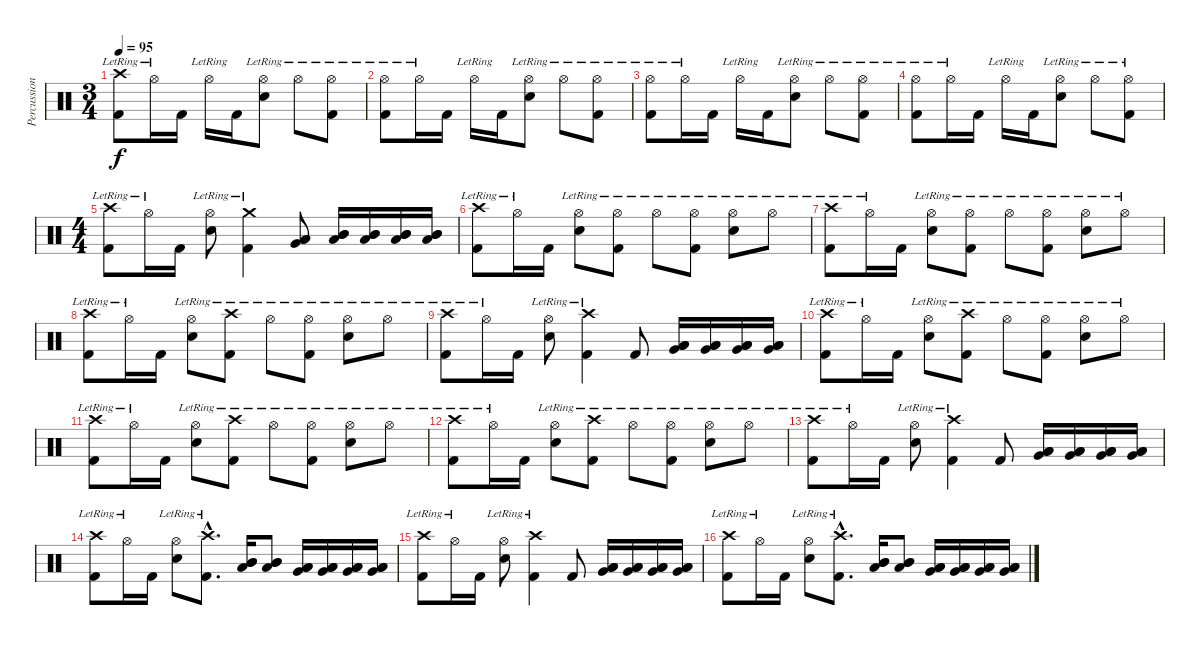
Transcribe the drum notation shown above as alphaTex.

\track ("Percussion I" "Percussion") {instrument percussion}
\staff {score}
\articulation defaults
\ts (3 4)
\tempo 95
\clef neutral
\ks c
("Crash high (hit)"{lr} "Kick (hit) 2").8{dy f} "Hi-Hat (open)"{lr}.16 "Kick (hit) 2".16 "Hi-Hat (open)"{lr}.16 "Kick (hit) 2".16 ("Hi-Hat (open)"{lr} "Electric Snare (hit)").8 "Hi-Hat (open)"{lr}.8 ("Hi-Hat (open)"{lr} "Kick (hit) 2").8 |
("Hi-Hat (open)"{lr} "Kick (hit) 2").8 "Hi-Hat (open)"{lr}.16 "Kick (hit) 2".16 "Hi-Hat (open)"{lr}.16 "Kick (hit) 2".16 ("Hi-Hat (open)"{lr} "Electric Snare (hit)").8 "Hi-Hat (open)"{lr}.8 ("Hi-Hat (open)"{lr} "Kick (hit) 2").8 |
("Hi-Hat (open)"{lr} "Kick (hit) 2").8 "Hi-Hat (open)"{lr}.16 "Kick (hit) 2".16 "Hi-Hat (open)"{lr}.16 "Kick (hit) 2".16 ("Hi-Hat (open)"{lr} "Electric Snare (hit)").8 "Hi-Hat (open)"{lr}.8 ("Hi-Hat (open)"{lr} "Kick (hit) 2").8 |
("Hi-Hat (open)"{lr} "Kick (hit) 2").8 "Hi-Hat (open)"{lr}.16 "Kick (hit) 2".16 "Hi-Hat (open)"{lr}.16 "Kick (hit) 2".16 ("Hi-Hat (open)"{lr} "Electric Snare (hit)").8 "Hi-Hat (open)"{lr}.8 ("Hi-Hat (open)"{lr} "Kick (hit) 2").8 |
\ts (4 4)
("Crash high (hit)"{lr} "Kick (hit) 2").8 "Hi-Hat (open)"{lr}.16 "Kick (hit) 2".16 ("Hi-Hat (open)"{lr} "Electric Snare (hit)").8 ("Crash medium (hit)"{lr} "Kick (hit) 2").4 ("Low Tom (hit)" "Low Tom (hit)" "Very Low Tom (hit)").8 ("Mid Tom (hit)" "Mid Tom (hit)" "Low Tom (hit)").16 ("Mid Tom (hit)" "Mid Tom (hit)" "Low Tom (hit)").16 ("Mid Tom (hit)" "Mid Tom (hit)" "Low Tom (hit)").16 ("Mid Tom (hit)" "Mid Tom (hit)" "Low Tom (hit)").16 |
("Crash high (hit)"{lr} "Kick (hit) 2").8 "Hi-Hat (open)"{lr}.16 "Kick (hit) 2".16 ("Hi-Hat (open)"{lr} "Electric Snare (hit)").8 ("Hi-Hat (open)"{lr} "Kick (hit) 2").8 "Hi-Hat (open)"{lr}.8 ("Hi-Hat (open)"{lr} "Kick (hit) 2").8 ("Hi-Hat (open)"{lr} "Electric Snare (hit)").8 "Hi-Hat (open)"{lr}.8 |
("Crash high (hit)"{lr} "Kick (hit) 2").8 "Hi-Hat (open)"{lr}.16 "Kick (hit) 2".16 ("Hi-Hat (open)"{lr} "Electric Snare (hit)").8 ("Hi-Hat (open)"{lr} "Kick (hit) 2").8 "Hi-Hat (open)"{lr}.8 ("Hi-Hat (open)"{lr} "Kick (hit) 2").8 ("Hi-Hat (open)"{lr} "Electric Snare (hit)").8 "Hi-Hat (open)"{lr}.8 |
("Crash high (hit)"{lr} "Kick (hit) 2").8 "Hi-Hat (open)"{lr}.16 "Kick (hit) 2".16 ("Hi-Hat (open)"{lr} "Electric Snare (hit)").8 ("Crash high (hit)"{lr} "Kick (hit) 2").8 "Hi-Hat (open)"{lr}.8 ("Hi-Hat (open)"{lr} "Kick (hit) 2").8 ("Hi-Hat (open)"{lr} "Electric Snare (hit)").8 "Hi-Hat (open)"{lr}.8 |
("Crash high (hit)"{lr} "Kick (hit) 2").8 "Hi-Hat (open)"{lr}.16 "Kick (hit) 2".16 ("Hi-Hat (open)"{lr} "Electric Snare (hit)").8 ("Crash high (hit)"{lr} "Kick (hit) 2").4 "Kick (hit) 2".8 ("Low Tom (hit)" "Low Tom (hit)" "Very Low Tom (hit)").16 ("Low Tom (hit)" "Low Tom (hit)" "Very Low Tom (hit)").16 ("Low Tom (hit)" "Low Tom (hit)" "Very Low Tom (hit)").16 ("Low Tom (hit)" "Low Tom (hit)" "Very Low Tom (hit)").16 |
("Crash high (hit)"{lr} "Kick (hit) 2").8 "Hi-Hat (open)"{lr}.16 "Kick (hit) 2".16 ("Hi-Hat (open)"{lr} "Electric Snare (hit)").8 ("Crash high (hit)"{lr} "Kick (hit) 2").8 "Hi-Hat (open)"{lr}.8 ("Hi-Hat (open)"{lr} "Kick (hit) 2").8 ("Hi-Hat (open)"{lr} "Electric Snare (hit)").8 "Hi-Hat (open)"{lr}.8 |
("Crash high (hit)"{lr} "Kick (hit) 2").8 "Hi-Hat (open)"{lr}.16 "Kick (hit) 2".16 ("Hi-Hat (open)"{lr} "Electric Snare (hit)").8 ("Crash high (hit)"{lr} "Kick (hit) 2").8 "Hi-Hat (open)"{lr}.8 ("Hi-Hat (open)"{lr} "Kick (hit) 2").8 ("Hi-Hat (open)"{lr} "Electric Snare (hit)").8 "Hi-Hat (open)"{lr}.8 |
("Crash high (hit)"{lr} "Kick (hit) 2").8 "Hi-Hat (open)"{lr}.16 "Kick (hit) 2".16 ("Hi-Hat (open)"{lr} "Electric Snare (hit)").8 ("Crash high (hit)"{lr} "Kick (hit) 2").8 "Hi-Hat (open)"{lr}.8 ("Hi-Hat (open)"{lr} "Kick (hit) 2").8 ("Hi-Hat (open)"{lr} "Electric Snare (hit)").8 "Hi-Hat (open)"{lr}.8 |
("Crash high (hit)"{lr} "Kick (hit) 2").8 "Hi-Hat (open)"{lr}.16 "Kick (hit) 2".16 ("Hi-Hat (open)"{lr} "Electric Snare (hit)").8 ("Crash high (hit)"{lr} "Kick (hit) 2").4 "Kick (hit) 2".8 ("Low Tom (hit)" "Low Tom (hit)" "Very Low Tom (hit)").16 ("Low Tom (hit)" "Low Tom (hit)" "Very Low Tom (hit)").16 ("Low Tom (hit)" "Low Tom (hit)" "Very Low Tom (hit)").16 ("Low Tom (hit)" "Low Tom (hit)" "Very Low Tom (hit)").16 |
("Crash high (hit)"{lr} "Kick (hit) 2").8 "Hi-Hat (open)"{lr}.16 "Kick (hit) 2".16 ("Hi-Hat (open)"{lr} "Electric Snare (hit)").8 ("Crash high (hit)"{hac lr} "Kick (hit) 2"{hac}).8{d} ("Mid Tom (hit)" "Mid Tom (hit)" "Low Tom (hit)").16 ("Mid Tom (hit)" "Mid Tom (hit)" "Low Tom (hit)").8 ("Low Tom (hit)" "Low Tom (hit)" "Very Low Tom (hit)").16 ("Low Tom (hit)" "Low Tom (hit)" "Very Low Tom (hit)").16 ("Low Tom (hit)" "Low Tom (hit)" "Very Low Tom (hit)").16 ("Low Tom (hit)" "Low Tom (hit)" "Very Low Tom (hit)").16 |
("Crash high (hit)"{lr} "Kick (hit) 2").8 "Hi-Hat (open)"{lr}.16 "Kick (hit) 2".16 ("Hi-Hat (open)"{lr} "Electric Snare (hit)").8 ("Crash high (hit)"{lr} "Kick (hit) 2").4 "Kick (hit) 2".8 ("Low Tom (hit)" "Low Tom (hit)" "Very Low Tom (hit)").16 ("Low Tom (hit)" "Low Tom (hit)" "Very Low Tom (hit)").16 ("Low Tom (hit)" "Low Tom (hit)" "Very Low Tom (hit)").16 ("Low Tom (hit)" "Low Tom (hit)" "Very Low Tom (hit)").16 |
("Crash high (hit)"{lr} "Kick (hit) 2").8 "Hi-Hat (open)"{lr}.16 "Kick (hit) 2".16 ("Hi-Hat (open)"{lr} "Electric Snare (hit)").8 ("Crash high (hit)"{hac lr} "Kick (hit) 2"{hac}).8{d} ("Mid Tom (hit)" "Mid Tom (hit)" "Low Tom (hit)").16 ("Mid Tom (hit)" "Mid Tom (hit)" "Low Tom (hit)").8 ("Low Tom (hit)" "Low Tom (hit)" "Very Low Tom (hit)").16 ("Low Tom (hit)" "Low Tom (hit)" "Very Low Tom (hit)").16 ("Low Tom (hit)" "Low Tom (hit)" "Very Low Tom (hit)").16 ("Low Tom (hit)" "Low Tom (hit)" "Very Low Tom (hit)").16
